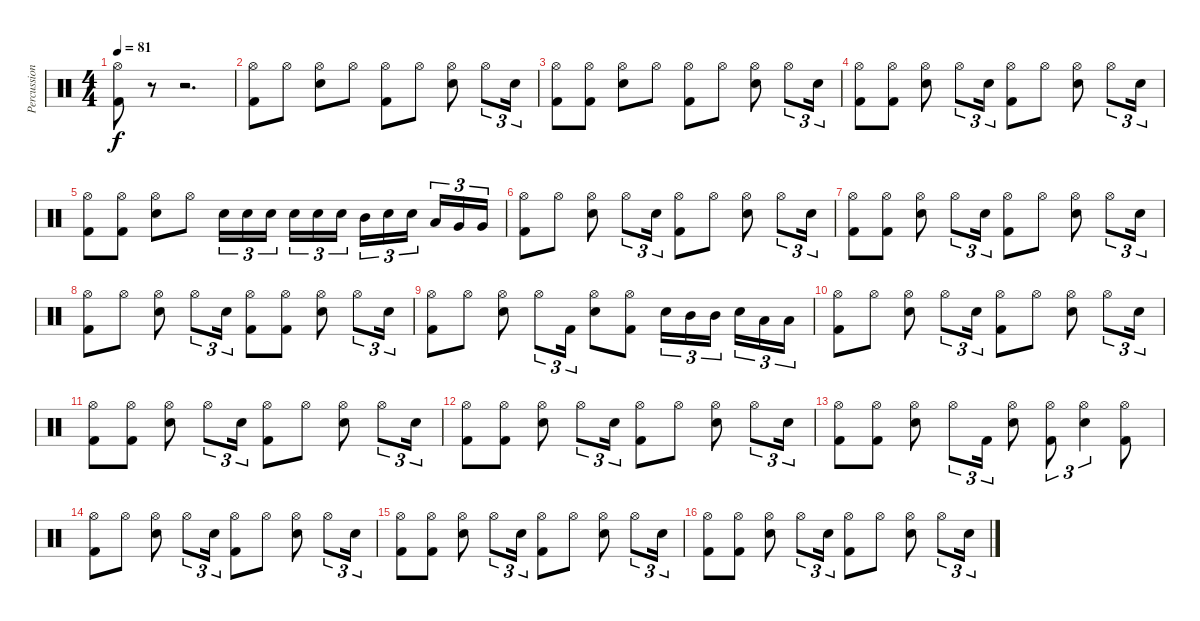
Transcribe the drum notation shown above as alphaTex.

\track ("Percussions" "Percussion") {instrument percussion}
\staff {score}
\articulation defaults
\ts (4 4)
\tempo 81
\clef neutral
\ks c
("Hi-Hat (open)" "Kick (hit) 2").8{dy f} r.8 r.2{d} |
("Hi-Hat (open)" "Kick (hit) 2").8 "Hi-Hat (open)".8 ("Hi-Hat (open)" "Snare (hit) 2").8 "Hi-Hat (open)".8 ("Hi-Hat (open)" "Kick (hit) 2").8 "Hi-Hat (open)".8 ("Hi-Hat (open)" "Snare (hit) 2").8 "Hi-Hat (open)".8{tu (3 2)} "Snare (hit) 2".16{tu (3 2)} |
("Hi-Hat (open)" "Kick (hit) 2").8 ("Hi-Hat (open)" "Kick (hit) 2").8 ("Hi-Hat (open)" "Snare (hit) 2").8 "Hi-Hat (open)".8 ("Hi-Hat (open)" "Kick (hit) 2").8 "Hi-Hat (open)".8 ("Hi-Hat (open)" "Snare (hit) 2").8 "Hi-Hat (open)".8{tu (3 2)} "Snare (hit) 2".16{tu (3 2)} |
("Hi-Hat (open)" "Kick (hit) 2").8 ("Hi-Hat (open)" "Kick (hit) 2").8 ("Hi-Hat (open)" "Snare (hit) 2").8 "Hi-Hat (open)".8{tu (3 2)} "Snare (hit) 2".16{tu (3 2)} ("Hi-Hat (open)" "Kick (hit) 2").8 "Hi-Hat (open)".8 ("Hi-Hat (open)" "Snare (hit) 2").8 "Hi-Hat (open)".8{tu (3 2)} "Snare (hit) 2".16{tu (3 2)} |
("Hi-Hat (open)" "Kick (hit) 2").8 ("Hi-Hat (open)" "Kick (hit) 2").8 ("Hi-Hat (open)" "Snare (hit) 2").8 "Hi-Hat (open)".8 "Snare (hit) 2".16{tu (3 2)} "Snare (hit) 2".16{tu (3 2)} "Snare (hit) 2".16{tu (3 2) beam splitsecondary} "Snare (hit) 2".16{tu (3 2)} "Snare (hit) 2".16{tu (3 2)} "Snare (hit) 2".16{tu (3 2)} "Mid Tom (hit)".16{tu (3 2)} "Snare (hit) 2".16{tu (3 2)} "Snare (hit) 2".16{tu (3 2) beam splitsecondary} "Low Tom (hit)".16{tu (3 2)} "Very Low Tom (hit)".16{tu (3 2)} "Very Low Tom (hit)".16{tu (3 2)} |
("Hi-Hat (open)" "Kick (hit) 2").8 "Hi-Hat (open)".8 ("Hi-Hat (open)" "Snare (hit) 2").8 "Hi-Hat (open)".8{tu (3 2)} "Snare (hit) 2".16{tu (3 2)} ("Hi-Hat (open)" "Kick (hit) 2").8 "Hi-Hat (open)".8 ("Hi-Hat (open)" "Snare (hit) 2").8 "Hi-Hat (open)".8{tu (3 2)} "Snare (hit) 2".16{tu (3 2)} |
("Hi-Hat (open)" "Kick (hit) 2").8 ("Hi-Hat (open)" "Kick (hit) 2").8 ("Hi-Hat (open)" "Snare (hit) 2").8 "Hi-Hat (open)".8{tu (3 2)} "Snare (hit) 2".16{tu (3 2)} ("Hi-Hat (open)" "Kick (hit) 2").8 "Hi-Hat (open)".8 ("Hi-Hat (open)" "Snare (hit) 2").8 "Hi-Hat (open)".8{tu (3 2)} "Snare (hit) 2".16{tu (3 2)} |
("Hi-Hat (open)" "Kick (hit) 2").8 "Hi-Hat (open)".8 ("Hi-Hat (open)" "Snare (hit) 2").8 "Hi-Hat (open)".8{tu (3 2)} "Snare (hit) 2".16{tu (3 2)} ("Hi-Hat (open)" "Kick (hit) 2").8 ("Hi-Hat (open)" "Kick (hit) 2").8 ("Hi-Hat (open)" "Snare (hit) 2").8 "Hi-Hat (open)".8{tu (3 2)} "Snare (hit) 2".16{tu (3 2)} |
("Hi-Hat (open)" "Kick (hit) 2").8 "Hi-Hat (open)".8 ("Hi-Hat (open)" "Snare (hit) 2").8 "Hi-Hat (open)".8{tu (3 2)} "Kick (hit) 2".16{tu (3 2)} ("Hi-Hat (open)" "Snare (hit) 2").8 ("Hi-Hat (open)" "Kick (hit) 2").8 "Snare (hit) 2".16{tu (3 2)} "Mid Tom (hit)".16{tu (3 2)} "Mid Tom (hit)".16{tu (3 2) beam splitsecondary} "Snare (hit) 2".16{tu (3 2)} "Low Tom (hit)".16{tu (3 2)} "Low Tom (hit)".16{tu (3 2)} |
("Hi-Hat (open)" "Kick (hit) 2").8 "Hi-Hat (open)".8 ("Hi-Hat (open)" "Snare (hit) 2").8 "Hi-Hat (open)".8{tu (3 2)} "Snare (hit) 2".16{tu (3 2)} ("Hi-Hat (open)" "Kick (hit) 2").8 "Hi-Hat (open)".8 ("Hi-Hat (open)" "Snare (hit) 2").8 "Hi-Hat (open)".8{tu (3 2)} "Snare (hit) 2".16{tu (3 2)} |
("Hi-Hat (open)" "Kick (hit) 2").8 ("Hi-Hat (open)" "Kick (hit) 2").8 ("Hi-Hat (open)" "Snare (hit) 2").8 "Hi-Hat (open)".8{tu (3 2)} "Snare (hit) 2".16{tu (3 2)} ("Hi-Hat (open)" "Kick (hit) 2").8 "Hi-Hat (open)".8 ("Hi-Hat (open)" "Snare (hit) 2").8 "Hi-Hat (open)".8{tu (3 2)} "Snare (hit) 2".16{tu (3 2)} |
("Hi-Hat (open)" "Kick (hit) 2").8 ("Hi-Hat (open)" "Kick (hit) 2").8 ("Hi-Hat (open)" "Snare (hit) 2").8 "Hi-Hat (open)".8{tu (3 2)} "Snare (hit) 2".16{tu (3 2)} ("Hi-Hat (open)" "Kick (hit) 2").8 "Hi-Hat (open)".8 ("Hi-Hat (open)" "Snare (hit) 2").8 "Hi-Hat (open)".8{tu (3 2)} "Snare (hit) 2".16{tu (3 2)} |
("Hi-Hat (open)" "Kick (hit) 2").8 ("Hi-Hat (open)" "Kick (hit) 2").8 ("Hi-Hat (open)" "Snare (hit) 2").8 "Hi-Hat (open)".8{tu (3 2)} "Kick (hit) 2".16{tu (3 2)} ("Hi-Hat (open)" "Snare (hit) 2").8 ("Hi-Hat (open)" "Kick (hit) 2").8{tu (3 2)} ("Hi-Hat (open)" "Snare (hit) 2").4{tu (3 2)} ("Hi-Hat (open)" "Kick (hit) 2").8 |
("Hi-Hat (open)" "Kick (hit) 2").8 "Hi-Hat (open)".8 ("Hi-Hat (open)" "Snare (hit) 2").8 "Hi-Hat (open)".8{tu (3 2)} "Snare (hit) 2".16{tu (3 2)} ("Hi-Hat (open)" "Kick (hit) 2").8 "Hi-Hat (open)".8 ("Hi-Hat (open)" "Snare (hit) 2").8 "Hi-Hat (open)".8{tu (3 2)} "Snare (hit) 2".16{tu (3 2)} |
("Hi-Hat (open)" "Kick (hit) 2").8 ("Hi-Hat (open)" "Kick (hit) 2").8 ("Hi-Hat (open)" "Snare (hit) 2").8 "Hi-Hat (open)".8{tu (3 2)} "Snare (hit) 2".16{tu (3 2)} ("Hi-Hat (open)" "Kick (hit) 2").8 "Hi-Hat (open)".8 ("Hi-Hat (open)" "Snare (hit) 2").8 "Hi-Hat (open)".8{tu (3 2)} "Snare (hit) 2".16{tu (3 2)} |
("Hi-Hat (open)" "Kick (hit) 2").8 ("Hi-Hat (open)" "Kick (hit) 2").8 ("Hi-Hat (open)" "Snare (hit) 2").8 "Hi-Hat (open)".8{tu (3 2)} "Snare (hit) 2".16{tu (3 2)} ("Hi-Hat (open)" "Kick (hit) 2").8 "Hi-Hat (open)".8 ("Hi-Hat (open)" "Snare (hit) 2").8 "Hi-Hat (open)".8{tu (3 2)} "Snare (hit) 2".16{tu (3 2)}
